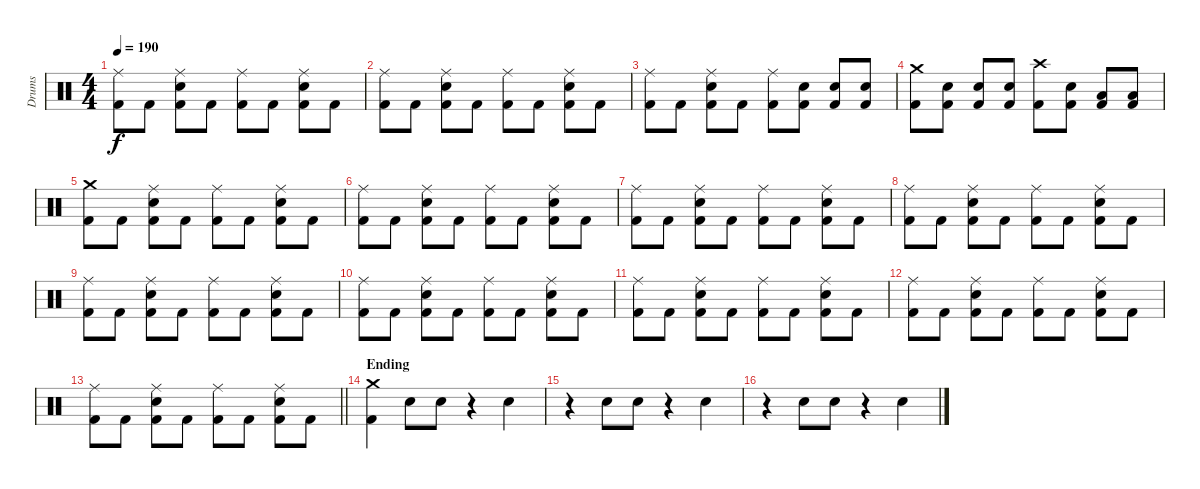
\track ("Drums" "Drums") {instrument percussion}
\staff {score}
\articulation defaults
\ts (4 4)
\tempo 190
\clef neutral
\ks c
("Ride (middle)" "Kick (hit) 2").8{dy f} "Kick (hit) 2".8 ("Ride (middle)" "Snare (hit) 2" "Kick (hit) 2").8 "Kick (hit) 2".8 ("Ride (middle)" "Kick (hit) 2").8 "Kick (hit) 2".8 ("Ride (middle)" "Snare (hit) 2" "Kick (hit) 2").8 "Kick (hit) 2".8 |
("Ride (middle)" "Kick (hit) 2").8 "Kick (hit) 2".8 ("Ride (middle)" "Snare (hit) 2" "Kick (hit) 2").8 "Kick (hit) 2".8 ("Ride (middle)" "Kick (hit) 2").8 "Kick (hit) 2".8 ("Ride (middle)" "Snare (hit) 2" "Kick (hit) 2").8 "Kick (hit) 2".8 |
("Ride (middle)" "Kick (hit) 2").8 "Kick (hit) 2".8 ("Ride (middle)" "Snare (hit) 2" "Kick (hit) 2").8 "Kick (hit) 2".8 ("Ride (middle)" "Kick (hit) 2").8 ("Snare (hit) 2" "Kick (hit) 2").8 ("Snare (hit) 2" "Kick (hit) 2").8 ("Snare (hit) 2" "Kick (hit) 2").8 |
("Crash medium (hit)" "Kick (hit) 2").8 ("Snare (hit) 2" "Kick (hit) 2").8 ("Snare (hit) 2" "Kick (hit) 2").8 ("Snare (hit) 2" "Kick (hit) 2").8 ("Crash high (hit)" "Kick (hit) 2").8 ("Snare (hit) 2" "Kick (hit) 2").8 ("Low Tom (hit)" "Kick (hit) 2").8 ("Low Tom (hit)" "Kick (hit) 2").8 |
("Crash medium (hit)" "Kick (hit) 2").8 "Kick (hit) 2".8 ("Ride (middle)" "Snare (hit) 2" "Kick (hit) 2").8 "Kick (hit) 2".8 ("Ride (middle)" "Kick (hit) 2").8 "Kick (hit) 2".8 ("Ride (middle)" "Snare (hit) 2" "Kick (hit) 2").8 "Kick (hit) 2".8 |
("Ride (middle)" "Kick (hit) 2").8 "Kick (hit) 2".8 ("Ride (middle)" "Snare (hit) 2" "Kick (hit) 2").8 "Kick (hit) 2".8 ("Ride (middle)" "Kick (hit) 2").8 "Kick (hit) 2".8 ("Ride (middle)" "Snare (hit) 2" "Kick (hit) 2").8 "Kick (hit) 2".8 |
("Ride (middle)" "Kick (hit) 2").8 "Kick (hit) 2".8 ("Ride (middle)" "Snare (hit) 2" "Kick (hit) 2").8 "Kick (hit) 2".8 ("Ride (middle)" "Kick (hit) 2").8 "Kick (hit) 2".8 ("Ride (middle)" "Snare (hit) 2" "Kick (hit) 2").8 "Kick (hit) 2".8 |
("Ride (middle)" "Kick (hit) 2").8 "Kick (hit) 2".8 ("Ride (middle)" "Snare (hit) 2" "Kick (hit) 2").8 "Kick (hit) 2".8 ("Ride (middle)" "Kick (hit) 2").8 "Kick (hit) 2".8 ("Ride (middle)" "Snare (hit) 2" "Kick (hit) 2").8 "Kick (hit) 2".8 |
("Ride (middle)" "Kick (hit) 2").8 "Kick (hit) 2".8 ("Ride (middle)" "Snare (hit) 2" "Kick (hit) 2").8 "Kick (hit) 2".8 ("Ride (middle)" "Kick (hit) 2").8 "Kick (hit) 2".8 ("Ride (middle)" "Snare (hit) 2" "Kick (hit) 2").8 "Kick (hit) 2".8 |
("Ride (middle)" "Kick (hit) 2").8 "Kick (hit) 2".8 ("Ride (middle)" "Snare (hit) 2" "Kick (hit) 2").8 "Kick (hit) 2".8 ("Ride (middle)" "Kick (hit) 2").8 "Kick (hit) 2".8 ("Ride (middle)" "Snare (hit) 2" "Kick (hit) 2").8 "Kick (hit) 2".8 |
("Ride (middle)" "Kick (hit) 2").8 "Kick (hit) 2".8 ("Ride (middle)" "Snare (hit) 2" "Kick (hit) 2").8 "Kick (hit) 2".8 ("Ride (middle)" "Kick (hit) 2").8 "Kick (hit) 2".8 ("Ride (middle)" "Snare (hit) 2" "Kick (hit) 2").8 "Kick (hit) 2".8 |
("Ride (middle)" "Kick (hit) 2").8 "Kick (hit) 2".8 ("Ride (middle)" "Snare (hit) 2" "Kick (hit) 2").8 "Kick (hit) 2".8 ("Ride (middle)" "Kick (hit) 2").8 "Kick (hit) 2".8 ("Ride (middle)" "Snare (hit) 2" "Kick (hit) 2").8 "Kick (hit) 2".8 |
\barLineRight lightlight
("Ride (middle)" "Kick (hit) 2").8 "Kick (hit) 2".8 ("Ride (middle)" "Snare (hit) 2" "Kick (hit) 2").8 "Kick (hit) 2".8 ("Ride (middle)" "Kick (hit) 2").8 "Kick (hit) 2".8 ("Ride (middle)" "Snare (hit) 2" "Kick (hit) 2").8 "Kick (hit) 2".8 |
\section ("" "Ending")
("Crash medium (hit)" "Kick (hit) 2").4 "Hand Clap (hit)".8 "Hand Clap (hit)".8 r.4 "Hand Clap (hit)".4 |
r.4 "Hand Clap (hit)".8 "Hand Clap (hit)".8 r.4 "Hand Clap (hit)".4 |
r.4 "Hand Clap (hit)".8 "Hand Clap (hit)".8 r.4 "Hand Clap (hit)".4
